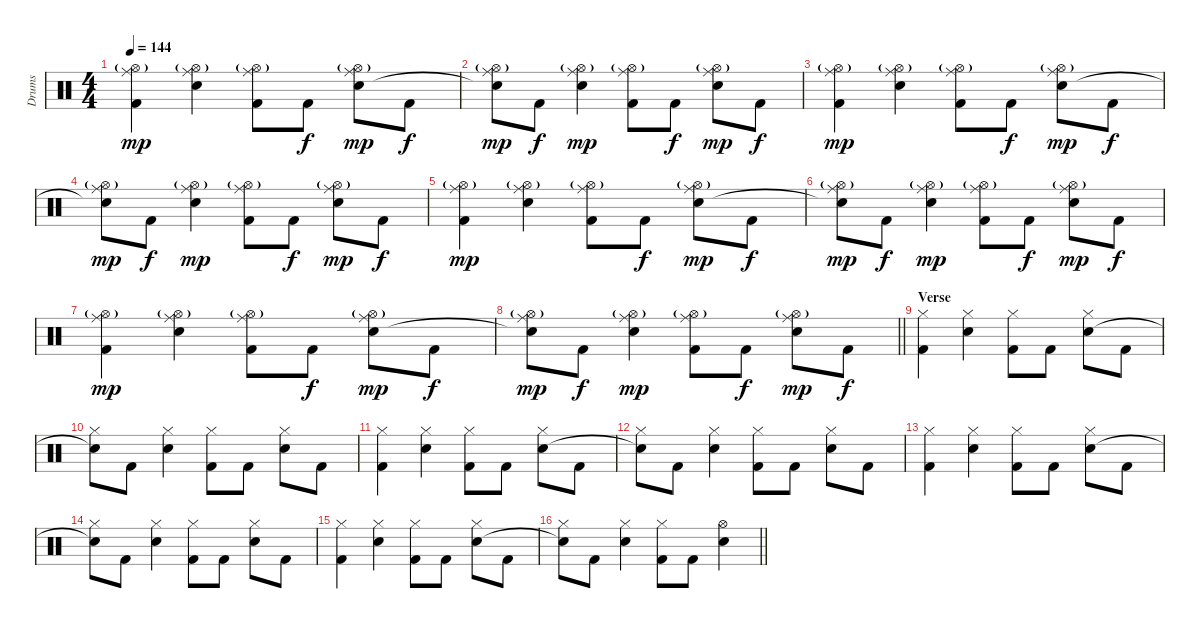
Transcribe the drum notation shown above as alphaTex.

\track ("Drums" "Drums") {instrument percussion}
\staff {score}
\articulation defaults
\ts (4 4)
\section ("" "")
\tempo 144
\clef neutral
\ks c
("Ride (middle)" "Hi-Hat (open)"{g} "Kick (hit) 2").4{dy mp} ("Ride (middle)" "Hi-Hat (open)"{g} "Electric Snare (hit)").4 ("Ride (middle)" "Hi-Hat (open)"{g} "Kick (hit) 2").8 "Kick (hit) 2".8{dy f} ("Ride (middle)" "Hi-Hat (open)"{g} "Electric Snare (hit)").8{dy mp} "Kick (hit) 2".8{dy f} |
("Ride (middle)" "Hi-Hat (open)"{g} "Snare (hit)"{t}).8{dy mp} "Kick (hit) 2".8{dy f} ("Ride (middle)" "Hi-Hat (open)"{g} "Electric Snare (hit)").4{dy mp} ("Ride (middle)" "Hi-Hat (open)"{g} "Kick (hit) 2").8 "Kick (hit) 2".8{dy f} ("Ride (middle)" "Hi-Hat (open)"{g} "Electric Snare (hit)").8{dy mp} "Kick (hit) 2".8{dy f} |
("Ride (middle)" "Hi-Hat (open)"{g} "Kick (hit) 2").4{dy mp} ("Ride (middle)" "Hi-Hat (open)"{g} "Electric Snare (hit)").4 ("Ride (middle)" "Hi-Hat (open)"{g} "Kick (hit) 2").8 "Kick (hit) 2".8{dy f} ("Ride (middle)" "Hi-Hat (open)"{g} "Electric Snare (hit)").8{dy mp} "Kick (hit) 2".8{dy f} |
("Ride (middle)" "Hi-Hat (open)"{g} "Snare (hit)"{t}).8{dy mp} "Kick (hit) 2".8{dy f} ("Ride (middle)" "Hi-Hat (open)"{g} "Electric Snare (hit)").4{dy mp} ("Ride (middle)" "Hi-Hat (open)"{g} "Kick (hit) 2").8 "Kick (hit) 2".8{dy f} ("Ride (middle)" "Hi-Hat (open)"{g} "Electric Snare (hit)").8{dy mp} "Kick (hit) 2".8{dy f} |
("Ride (middle)" "Hi-Hat (open)"{g} "Kick (hit) 2").4{dy mp} ("Ride (middle)" "Hi-Hat (open)"{g} "Electric Snare (hit)").4 ("Ride (middle)" "Hi-Hat (open)"{g} "Kick (hit) 2").8 "Kick (hit) 2".8{dy f} ("Ride (middle)" "Hi-Hat (open)"{g} "Electric Snare (hit)").8{dy mp} "Kick (hit) 2".8{dy f} |
("Ride (middle)" "Hi-Hat (open)"{g} "Snare (hit)"{t}).8{dy mp} "Kick (hit) 2".8{dy f} ("Ride (middle)" "Hi-Hat (open)"{g} "Electric Snare (hit)").4{dy mp} ("Ride (middle)" "Hi-Hat (open)"{g} "Kick (hit) 2").8 "Kick (hit) 2".8{dy f} ("Ride (middle)" "Hi-Hat (open)"{g} "Electric Snare (hit)").8{dy mp} "Kick (hit) 2".8{dy f} |
("Ride (middle)" "Hi-Hat (open)"{g} "Kick (hit) 2").4{dy mp} ("Ride (middle)" "Hi-Hat (open)"{g} "Electric Snare (hit)").4 ("Ride (middle)" "Hi-Hat (open)"{g} "Kick (hit) 2").8 "Kick (hit) 2".8{dy f} ("Ride (middle)" "Hi-Hat (open)"{g} "Electric Snare (hit)").8{dy mp} "Kick (hit) 2".8{dy f} |
\barLineRight lightlight
("Ride (middle)" "Hi-Hat (open)"{g} "Snare (hit)"{t}).8{dy mp} "Kick (hit) 2".8{dy f} ("Ride (middle)" "Hi-Hat (open)"{g} "Electric Snare (hit)").4{dy mp} ("Ride (middle)" "Hi-Hat (open)"{g} "Kick (hit) 2").8 "Kick (hit) 2".8{dy f} ("Ride (middle)" "Hi-Hat (open)"{g} "Electric Snare (hit)").8{dy mp} "Kick (hit) 2".8{dy f} |
\section ("" "Verse")
("Hi-Hat (closed)" "Kick (hit) 2").4 ("Hi-Hat (closed)" "Electric Snare (hit)").4 ("Hi-Hat (closed)" "Kick (hit) 2").8 "Kick (hit) 2".8 ("Hi-Hat (closed)" "Electric Snare (hit)").8 "Kick (hit) 2".8 |
("Hi-Hat (closed)" "Snare (hit)"{t}).8 "Kick (hit) 2".8 ("Hi-Hat (closed)" "Electric Snare (hit)").4 ("Hi-Hat (closed)" "Kick (hit) 2").8 "Kick (hit) 2".8 ("Hi-Hat (closed)" "Electric Snare (hit)").8 "Kick (hit) 2".8 |
("Hi-Hat (closed)" "Kick (hit) 2").4 ("Hi-Hat (closed)" "Electric Snare (hit)").4 ("Hi-Hat (closed)" "Kick (hit) 2").8 "Kick (hit) 2".8 ("Hi-Hat (closed)" "Electric Snare (hit)").8 "Kick (hit) 2".8 |
("Hi-Hat (closed)" "Snare (hit)"{t}).8 "Kick (hit) 2".8 ("Hi-Hat (closed)" "Electric Snare (hit)").4 ("Hi-Hat (closed)" "Kick (hit) 2").8 "Kick (hit) 2".8 ("Hi-Hat (closed)" "Electric Snare (hit)").8 "Kick (hit) 2".8 |
("Hi-Hat (closed)" "Kick (hit) 2").4 ("Hi-Hat (closed)" "Electric Snare (hit)").4 ("Hi-Hat (closed)" "Kick (hit) 2").8 "Kick (hit) 2".8 ("Hi-Hat (closed)" "Electric Snare (hit)").8 "Kick (hit) 2".8 |
("Hi-Hat (closed)" "Snare (hit)"{t}).8 "Kick (hit) 2".8 ("Hi-Hat (closed)" "Electric Snare (hit)").4 ("Hi-Hat (closed)" "Kick (hit) 2").8 "Kick (hit) 2".8 ("Hi-Hat (closed)" "Electric Snare (hit)").8 "Kick (hit) 2".8 |
("Hi-Hat (closed)" "Kick (hit) 2").4 ("Hi-Hat (closed)" "Electric Snare (hit)").4 ("Hi-Hat (closed)" "Kick (hit) 2").8 "Kick (hit) 2".8 ("Hi-Hat (closed)" "Electric Snare (hit)").8 "Kick (hit) 2".8 |
\barLineRight lightlight
("Hi-Hat (closed)" "Snare (hit)"{t}).8 "Kick (hit) 2".8 ("Hi-Hat (closed)" "Electric Snare (hit)").4 ("Hi-Hat (closed)" "Kick (hit) 2").8 "Kick (hit) 2".8 ("Hi-Hat (open)" "Electric Snare (hit)").4
